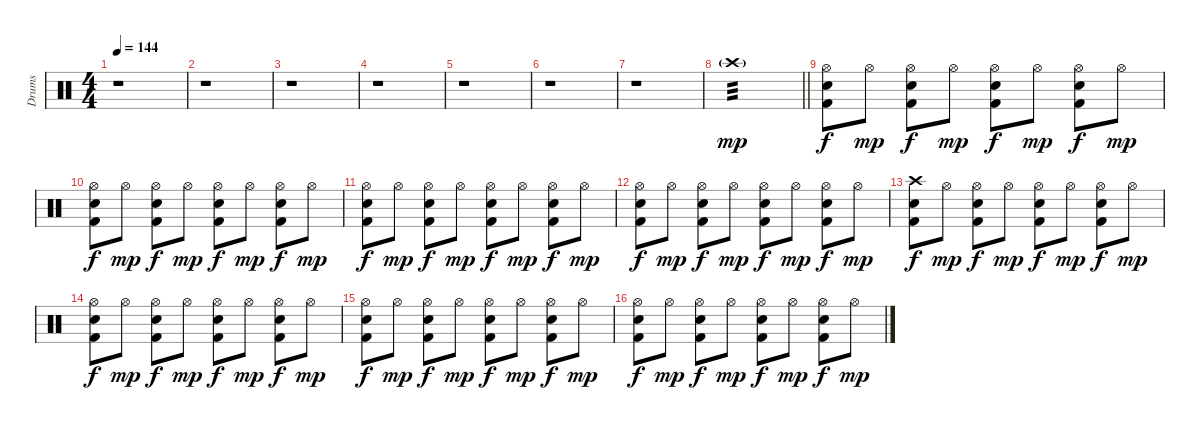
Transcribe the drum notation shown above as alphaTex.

\track ("Drums" "Drums") {instrument percussion}
\staff {score}
\articulation defaults
\ts (4 4)
\tempo 144
\clef neutral
\ks c
r.1{dy mp} |
r.1 |
r.1 |
r.1 |
r.1 |
r.1 |
r.1{volume 8} |
\barLineRight lightlight "Crash high (hit)"{g}.1{tp 3 volume 13}
|
("Hi-Hat (open)" "Snare (hit) 2" "Kick (hit) 2").8{dy f} "Hi-Hat (open)".8{dy mp} ("Hi-Hat (open)" "Snare (hit) 2" "Kick (hit) 2").8{dy f} "Hi-Hat (open)".8{dy mp} ("Hi-Hat (open)" "Snare (hit) 2" "Kick (hit) 2").8{dy f} "Hi-Hat (open)".8{dy mp} ("Hi-Hat (open)" "Snare (hit) 2" "Kick (hit) 2").8{dy f} "Hi-Hat (open)".8{dy mp} |
("Hi-Hat (open)" "Snare (hit) 2" "Kick (hit) 2").8{dy f} "Hi-Hat (open)".8{dy mp} ("Hi-Hat (open)" "Snare (hit) 2" "Kick (hit) 2").8{dy f} "Hi-Hat (open)".8{dy mp} ("Hi-Hat (open)" "Snare (hit) 2" "Kick (hit) 2").8{dy f} "Hi-Hat (open)".8{dy mp} ("Hi-Hat (open)" "Snare (hit) 2" "Kick (hit) 2").8{dy f} "Hi-Hat (open)".8{dy mp} |
("Hi-Hat (open)" "Snare (hit) 2" "Kick (hit) 2").8{dy f} "Hi-Hat (open)".8{dy mp} ("Hi-Hat (open)" "Snare (hit) 2" "Kick (hit) 2").8{dy f} "Hi-Hat (open)".8{dy mp} ("Hi-Hat (open)" "Snare (hit) 2" "Kick (hit) 2").8{dy f} "Hi-Hat (open)".8{dy mp} ("Hi-Hat (open)" "Snare (hit) 2" "Kick (hit) 2").8{dy f} "Hi-Hat (open)".8{dy mp} |
("Hi-Hat (open)" "Snare (hit) 2" "Kick (hit) 2").8{dy f} "Hi-Hat (open)".8{dy mp} ("Hi-Hat (open)" "Snare (hit) 2" "Kick (hit) 2").8{dy f} "Hi-Hat (open)".8{dy mp} ("Hi-Hat (open)" "Snare (hit) 2" "Kick (hit) 2").8{dy f} "Hi-Hat (open)".8{dy mp} ("Hi-Hat (open)" "Snare (hit) 2" "Kick (hit) 2").8{dy f} "Hi-Hat (open)".8{dy mp} |
("Crash high (hit)" "Snare (hit) 2" "Kick (hit) 2").8{dy f} "Hi-Hat (open)".8{dy mp} ("Hi-Hat (open)" "Snare (hit) 2" "Kick (hit) 2").8{dy f} "Hi-Hat (open)".8{dy mp} ("Hi-Hat (open)" "Snare (hit) 2" "Kick (hit) 2").8{dy f} "Hi-Hat (open)".8{dy mp} ("Hi-Hat (open)" "Snare (hit) 2" "Kick (hit) 2").8{dy f} "Hi-Hat (open)".8{dy mp} |
("Hi-Hat (open)" "Snare (hit) 2" "Kick (hit) 2").8{dy f} "Hi-Hat (open)".8{dy mp} ("Hi-Hat (open)" "Snare (hit) 2" "Kick (hit) 2").8{dy f} "Hi-Hat (open)".8{dy mp} ("Hi-Hat (open)" "Snare (hit) 2" "Kick (hit) 2").8{dy f} "Hi-Hat (open)".8{dy mp} ("Hi-Hat (open)" "Snare (hit) 2" "Kick (hit) 2").8{dy f} "Hi-Hat (open)".8{dy mp} |
("Hi-Hat (open)" "Snare (hit) 2" "Kick (hit) 2").8{dy f} "Hi-Hat (open)".8{dy mp} ("Hi-Hat (open)" "Snare (hit) 2" "Kick (hit) 2").8{dy f} "Hi-Hat (open)".8{dy mp} ("Hi-Hat (open)" "Snare (hit) 2" "Kick (hit) 2").8{dy f} "Hi-Hat (open)".8{dy mp} ("Hi-Hat (open)" "Snare (hit) 2" "Kick (hit) 2").8{dy f} "Hi-Hat (open)".8{dy mp} |
("Hi-Hat (open)" "Snare (hit) 2" "Kick (hit) 2").8{dy f} "Hi-Hat (open)".8{dy mp} ("Hi-Hat (open)" "Snare (hit) 2" "Kick (hit) 2").8{dy f} "Hi-Hat (open)".8{dy mp} ("Hi-Hat (open)" "Snare (hit) 2" "Kick (hit) 2").8{dy f} "Hi-Hat (open)".8{dy mp} ("Hi-Hat (open)" "Snare (hit) 2" "Kick (hit) 2").8{dy f} "Hi-Hat (open)".8{dy mp}
